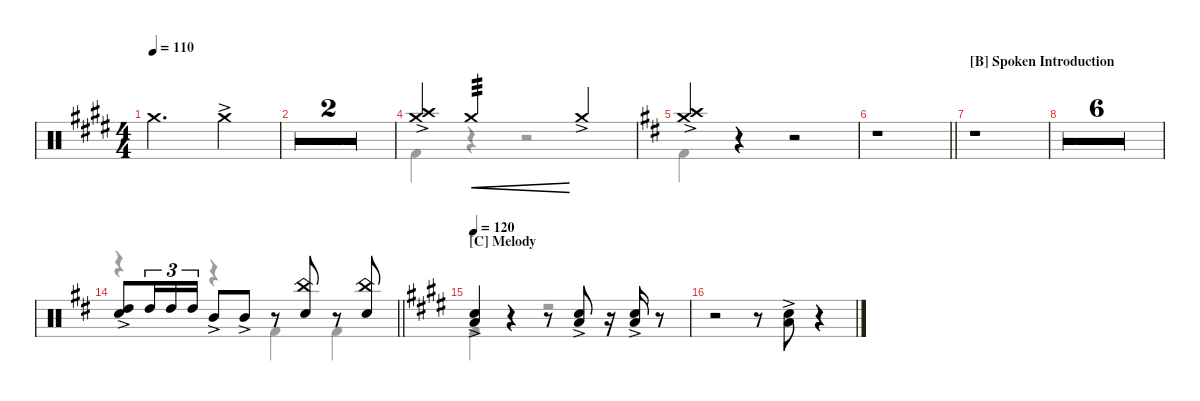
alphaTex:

\defaultSystemsLayout 4
\hideDynamics
\bracketExtendMode nobrackets
\singleTrackTrackNamePolicy hidden
\multiTrackTrackNamePolicy hidden
\firstSystemTrackNameMode fullname
\firstSystemTrackNameOrientation horizontal
\otherSystemsTrackNameOrientation horizontal
\track ("Drums" "Drums") {multiBarRest instrument percussion}
\staff {score}
\articulation defaults
\voice
\ts (4 4)
\tempo 110
\clef neutral
\ks e "Crash medium (hit)"{t acc forcenatural}.2{d dy mf} "Crash medium (hit)"{ac acc forcenatural}.4
|
\simile firstofdouble
|
\simile secondofdouble
|
("Crash medium (hit)"{ac acc forcenatural} "Crash high (hit)"{ac acc forcenatural}).4 "Crash medium (hit)"{acc forcenatural}.2{tp 3 cre} "Crash medium (hit)"{ac acc forcenatural}.4 |
\ks bminor
("Crash medium (hit)"{ac acc forcenatural} "Crash high (hit)"{ac acc forcenatural}).4 r.4 r.2 |
\barLineRight lightlight
r.1 |
\section ("B" "Spoken Introduction")
r.1 |
r.1 |
r.1 |
r.1 |
r.1 |
r.1 |
r.1 |
\barLineRight lightlight
("Snare (hit) 2"{ac acc forcenatural} "High Tom (hit)"{ac acc forcenatural}).8{beam merge} "High Tom (hit)"{acc forcenatural}.16{tu (3 2) beam merge} "High Tom (hit)"{acc forcenatural}.16{tu (3 2) beam merge} "High Tom (hit)"{acc forcenatural}.16{tu (3 2)} "Mid Tom (hit)"{ac acc forcenatural}.8 "Mid Tom (hit)"{ac acc forcenatural}.8 r.8 ("Snare (hit) 2"{acc forcenatural} "China (hit)"{acc forcenatural}).8 r.8 ("Snare (hit) 2"{acc forcenatural} "China (hit)"{acc forcenatural}).8 |
\section ("C" "Melody")
\tempo 120
\ks e
("Snare (hit) 2"{ac acc forcenatural} "Low Tom (hit)"{ac acc forcenatural}).4 r.4 r.8 ("Snare (hit) 2"{ac acc forcenatural} "Low Tom (hit)"{ac acc forcenatural}).8 r.16 ("Snare (hit) 2"{ac acc forcenatural} "Low Tom (hit)"{ac acc forcenatural}).16 r.8 |
r.2 r.8 ("Low Tom (hit)"{ac acc forcenatural} "Snare (hit) 2"{ac acc forcenatural}).8 r.4
\voice
\clef neutral
\ottava regular
\simile none
\ks e
|
\simile firstofdouble
|
\simile secondofdouble
|
\simile none "Kick (hit) 2"{acc forcenatural}.4
r.4 r.2 |
\ks bminor "Kick (hit) 2"{acc forcenatural}.4
r.4 r.2 |
\barLineRight lightlight
|
|
|
|
|
|
|
|
\barLineRight lightlight
r.4 r.4 "Kick (hit) 2"{acc forcenatural}.4 "Kick (hit) 2"{acc forcenatural}.4 |
\ks e "Kick (hit) 2"{acc forcenatural}.4
r.4 r.2 |
